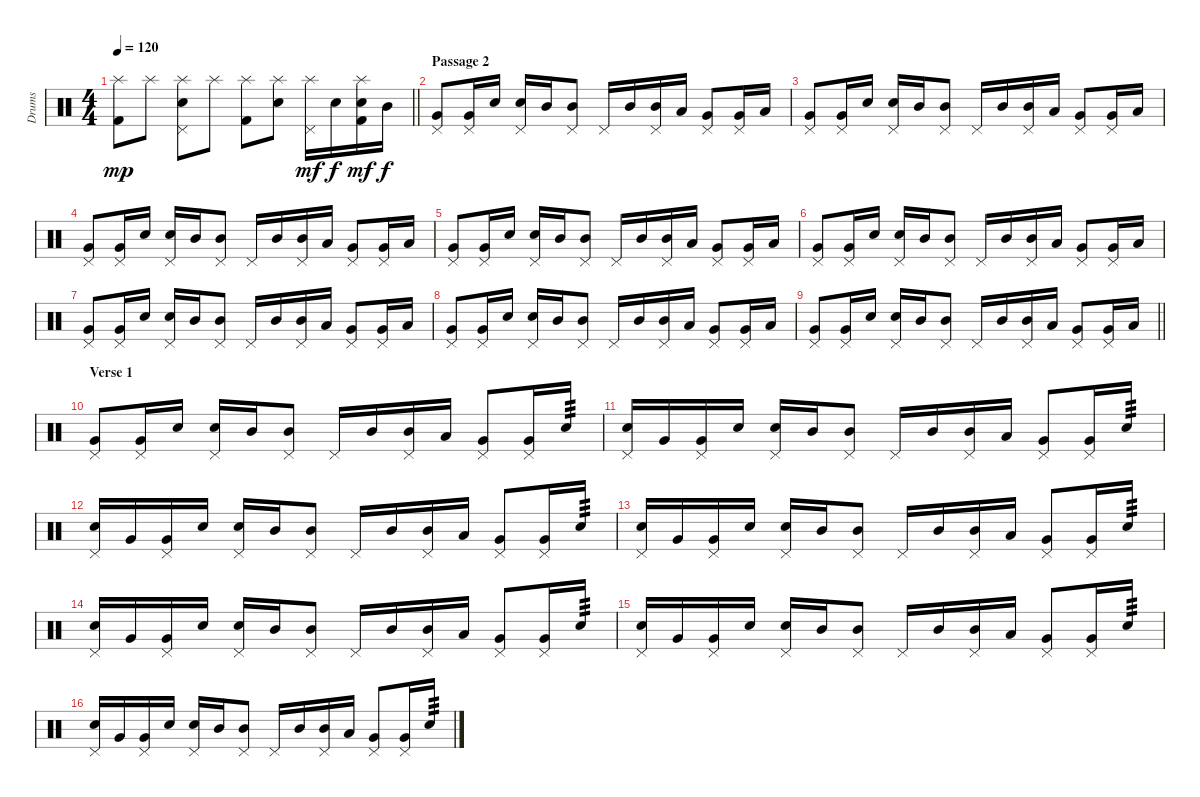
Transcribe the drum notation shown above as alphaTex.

\track ("Drums" "Drums") {instrument percussion}
\staff {score}
\articulation defaults
\ts (4 4)
\tempo 120
\clef neutral
\barLineRight lightlight
\ks c
("Splash (hit)" "Kick (hit) 2").8{dy mp} "Splash (hit)".8 ("Splash (hit)" "Snare (hit) 2" "Pedal Hi-Hat (hit)").8 "Splash (hit)".8 ("Splash (hit)" "Kick (hit) 2").8 ("Splash (hit)" "Snare (hit) 2").8 ("Splash (hit)" "Pedal Hi-Hat (hit)").16{dy mf} "Snare (hit) 2".16{dy f} ("Splash (hit)" "Snare (hit) 2" "Kick (hit) 2").16{dy mf} "Mid Tom (hit)".16{dy f} |
\section ("" "Passage 2")
("Very Low Tom (hit)" "Pedal Hi-Hat (hit)").8 ("Very Low Tom (hit)" "Pedal Hi-Hat (hit)").16 "Snare (hit) 2".16 ("Snare (hit) 2" "Pedal Hi-Hat (hit)").16 "Mid Tom (hit)".16 ("Mid Tom (hit)" "Pedal Hi-Hat (hit)").8 "Pedal Hi-Hat (hit)".16 "Mid Tom (hit)".16 ("Mid Tom (hit)" "Pedal Hi-Hat (hit)").16 "Low Tom (hit)".16 ("Very Low Tom (hit)" "Pedal Hi-Hat (hit)").8 ("Very Low Tom (hit)" "Pedal Hi-Hat (hit)").16 "Low Tom (hit)".16 |
("Very Low Tom (hit)" "Pedal Hi-Hat (hit)").8 ("Very Low Tom (hit)" "Pedal Hi-Hat (hit)").16 "Snare (hit) 2".16 ("Snare (hit) 2" "Pedal Hi-Hat (hit)").16 "Mid Tom (hit)".16 ("Mid Tom (hit)" "Pedal Hi-Hat (hit)").8 "Pedal Hi-Hat (hit)".16 "Mid Tom (hit)".16 ("Mid Tom (hit)" "Pedal Hi-Hat (hit)").16 "Low Tom (hit)".16 ("Very Low Tom (hit)" "Pedal Hi-Hat (hit)").8 ("Very Low Tom (hit)" "Pedal Hi-Hat (hit)").16 "Low Tom (hit)".16 |
("Very Low Tom (hit)" "Pedal Hi-Hat (hit)").8 ("Very Low Tom (hit)" "Pedal Hi-Hat (hit)").16 "Snare (hit) 2".16 ("Snare (hit) 2" "Pedal Hi-Hat (hit)").16 "Mid Tom (hit)".16 ("Mid Tom (hit)" "Pedal Hi-Hat (hit)").8 "Pedal Hi-Hat (hit)".16 "Mid Tom (hit)".16 ("Mid Tom (hit)" "Pedal Hi-Hat (hit)").16 "Low Tom (hit)".16 ("Very Low Tom (hit)" "Pedal Hi-Hat (hit)").8 ("Very Low Tom (hit)" "Pedal Hi-Hat (hit)").16 "Low Tom (hit)".16 |
("Very Low Tom (hit)" "Pedal Hi-Hat (hit)").8 ("Very Low Tom (hit)" "Pedal Hi-Hat (hit)").16 "Snare (hit) 2".16 ("Snare (hit) 2" "Pedal Hi-Hat (hit)").16 "Mid Tom (hit)".16 ("Mid Tom (hit)" "Pedal Hi-Hat (hit)").8 "Pedal Hi-Hat (hit)".16 "Mid Tom (hit)".16 ("Mid Tom (hit)" "Pedal Hi-Hat (hit)").16 "Low Tom (hit)".16 ("Very Low Tom (hit)" "Pedal Hi-Hat (hit)").8 ("Very Low Tom (hit)" "Pedal Hi-Hat (hit)").16 "Low Tom (hit)".16 |
("Very Low Tom (hit)" "Pedal Hi-Hat (hit)").8 ("Very Low Tom (hit)" "Pedal Hi-Hat (hit)").16 "Snare (hit) 2".16 ("Snare (hit) 2" "Pedal Hi-Hat (hit)").16 "Mid Tom (hit)".16 ("Mid Tom (hit)" "Pedal Hi-Hat (hit)").8 "Pedal Hi-Hat (hit)".16 "Mid Tom (hit)".16 ("Mid Tom (hit)" "Pedal Hi-Hat (hit)").16 "Low Tom (hit)".16 ("Very Low Tom (hit)" "Pedal Hi-Hat (hit)").8 ("Very Low Tom (hit)" "Pedal Hi-Hat (hit)").16 "Low Tom (hit)".16 |
("Very Low Tom (hit)" "Pedal Hi-Hat (hit)").8 ("Very Low Tom (hit)" "Pedal Hi-Hat (hit)").16 "Snare (hit) 2".16 ("Snare (hit) 2" "Pedal Hi-Hat (hit)").16 "Mid Tom (hit)".16 ("Mid Tom (hit)" "Pedal Hi-Hat (hit)").8 "Pedal Hi-Hat (hit)".16 "Mid Tom (hit)".16 ("Mid Tom (hit)" "Pedal Hi-Hat (hit)").16 "Low Tom (hit)".16 ("Very Low Tom (hit)" "Pedal Hi-Hat (hit)").8 ("Very Low Tom (hit)" "Pedal Hi-Hat (hit)").16 "Low Tom (hit)".16 |
("Very Low Tom (hit)" "Pedal Hi-Hat (hit)").8 ("Very Low Tom (hit)" "Pedal Hi-Hat (hit)").16 "Snare (hit) 2".16 ("Snare (hit) 2" "Pedal Hi-Hat (hit)").16 "Mid Tom (hit)".16 ("Mid Tom (hit)" "Pedal Hi-Hat (hit)").8 "Pedal Hi-Hat (hit)".16 "Mid Tom (hit)".16 ("Mid Tom (hit)" "Pedal Hi-Hat (hit)").16 "Low Tom (hit)".16 ("Very Low Tom (hit)" "Pedal Hi-Hat (hit)").8 ("Very Low Tom (hit)" "Pedal Hi-Hat (hit)").16 "Low Tom (hit)".16 |
\barLineRight lightlight
("Very Low Tom (hit)" "Pedal Hi-Hat (hit)").8 ("Very Low Tom (hit)" "Pedal Hi-Hat (hit)").16 "Snare (hit) 2".16 ("Snare (hit) 2" "Pedal Hi-Hat (hit)").16 "Mid Tom (hit)".16 ("Mid Tom (hit)" "Pedal Hi-Hat (hit)").8 "Pedal Hi-Hat (hit)".16 "Mid Tom (hit)".16 ("Mid Tom (hit)" "Pedal Hi-Hat (hit)").16 "Low Tom (hit)".16 ("Very Low Tom (hit)" "Pedal Hi-Hat (hit)").8 ("Very Low Tom (hit)" "Pedal Hi-Hat (hit)").16 "Low Tom (hit)".16 |
\section ("" "Verse 1")
("Very Low Tom (hit)" "Pedal Hi-Hat (hit)").8 ("Very Low Tom (hit)" "Pedal Hi-Hat (hit)").16 "Snare (hit) 2".16 ("Snare (hit) 2" "Pedal Hi-Hat (hit)").16 "Mid Tom (hit)".16 ("Mid Tom (hit)" "Pedal Hi-Hat (hit)").8 "Pedal Hi-Hat (hit)".16 "Mid Tom (hit)".16 ("Mid Tom (hit)" "Pedal Hi-Hat (hit)").16 "Low Tom (hit)".16 ("Very Low Tom (hit)" "Pedal Hi-Hat (hit)").8 ("Very Low Tom (hit)" "Pedal Hi-Hat (hit)").16 "Snare (hit) 2".16{tp 3} |
("Snare (hit) 2" "Pedal Hi-Hat (hit)").16 "Very Low Tom (hit)".16 ("Very Low Tom (hit)" "Pedal Hi-Hat (hit)").16 "Snare (hit) 2".16 ("Snare (hit) 2" "Pedal Hi-Hat (hit)").16 "Mid Tom (hit)".16 ("Mid Tom (hit)" "Pedal Hi-Hat (hit)").8 "Pedal Hi-Hat (hit)".16 "Mid Tom (hit)".16 ("Mid Tom (hit)" "Pedal Hi-Hat (hit)").16 "Low Tom (hit)".16 ("Very Low Tom (hit)" "Pedal Hi-Hat (hit)").8 ("Very Low Tom (hit)" "Pedal Hi-Hat (hit)").16 "Snare (hit) 2".16{tp 3} |
("Snare (hit) 2" "Pedal Hi-Hat (hit)").16 "Very Low Tom (hit)".16 ("Very Low Tom (hit)" "Pedal Hi-Hat (hit)").16 "Snare (hit) 2".16 ("Snare (hit) 2" "Pedal Hi-Hat (hit)").16 "Mid Tom (hit)".16 ("Mid Tom (hit)" "Pedal Hi-Hat (hit)").8 "Pedal Hi-Hat (hit)".16 "Mid Tom (hit)".16 ("Mid Tom (hit)" "Pedal Hi-Hat (hit)").16 "Low Tom (hit)".16 ("Very Low Tom (hit)" "Pedal Hi-Hat (hit)").8 ("Very Low Tom (hit)" "Pedal Hi-Hat (hit)").16 "Snare (hit) 2".16{tp 3} |
("Snare (hit) 2" "Pedal Hi-Hat (hit)").16 "Very Low Tom (hit)".16 ("Very Low Tom (hit)" "Pedal Hi-Hat (hit)").16 "Snare (hit) 2".16 ("Snare (hit) 2" "Pedal Hi-Hat (hit)").16 "Mid Tom (hit)".16 ("Mid Tom (hit)" "Pedal Hi-Hat (hit)").8 "Pedal Hi-Hat (hit)".16 "Mid Tom (hit)".16 ("Mid Tom (hit)" "Pedal Hi-Hat (hit)").16 "Low Tom (hit)".16 ("Very Low Tom (hit)" "Pedal Hi-Hat (hit)").8 ("Very Low Tom (hit)" "Pedal Hi-Hat (hit)").16 "Snare (hit) 2".16{tp 3} |
("Snare (hit) 2" "Pedal Hi-Hat (hit)").16 "Very Low Tom (hit)".16 ("Very Low Tom (hit)" "Pedal Hi-Hat (hit)").16 "Snare (hit) 2".16 ("Snare (hit) 2" "Pedal Hi-Hat (hit)").16 "Mid Tom (hit)".16 ("Mid Tom (hit)" "Pedal Hi-Hat (hit)").8 "Pedal Hi-Hat (hit)".16 "Mid Tom (hit)".16 ("Mid Tom (hit)" "Pedal Hi-Hat (hit)").16 "Low Tom (hit)".16 ("Very Low Tom (hit)" "Pedal Hi-Hat (hit)").8 ("Very Low Tom (hit)" "Pedal Hi-Hat (hit)").16 "Snare (hit) 2".16{tp 3} |
("Snare (hit) 2" "Pedal Hi-Hat (hit)").16 "Very Low Tom (hit)".16 ("Very Low Tom (hit)" "Pedal Hi-Hat (hit)").16 "Snare (hit) 2".16 ("Snare (hit) 2" "Pedal Hi-Hat (hit)").16 "Mid Tom (hit)".16 ("Mid Tom (hit)" "Pedal Hi-Hat (hit)").8 "Pedal Hi-Hat (hit)".16 "Mid Tom (hit)".16 ("Mid Tom (hit)" "Pedal Hi-Hat (hit)").16 "Low Tom (hit)".16 ("Very Low Tom (hit)" "Pedal Hi-Hat (hit)").8 ("Very Low Tom (hit)" "Pedal Hi-Hat (hit)").16 "Snare (hit) 2".16{tp 3} |
("Snare (hit) 2" "Pedal Hi-Hat (hit)").16 "Very Low Tom (hit)".16 ("Very Low Tom (hit)" "Pedal Hi-Hat (hit)").16 "Snare (hit) 2".16 ("Snare (hit) 2" "Pedal Hi-Hat (hit)").16 "Mid Tom (hit)".16 ("Mid Tom (hit)" "Pedal Hi-Hat (hit)").8 "Pedal Hi-Hat (hit)".16 "Mid Tom (hit)".16 ("Mid Tom (hit)" "Pedal Hi-Hat (hit)").16 "Low Tom (hit)".16 ("Very Low Tom (hit)" "Pedal Hi-Hat (hit)").8 ("Very Low Tom (hit)" "Pedal Hi-Hat (hit)").16 "Snare (hit) 2".16{tp 3}
